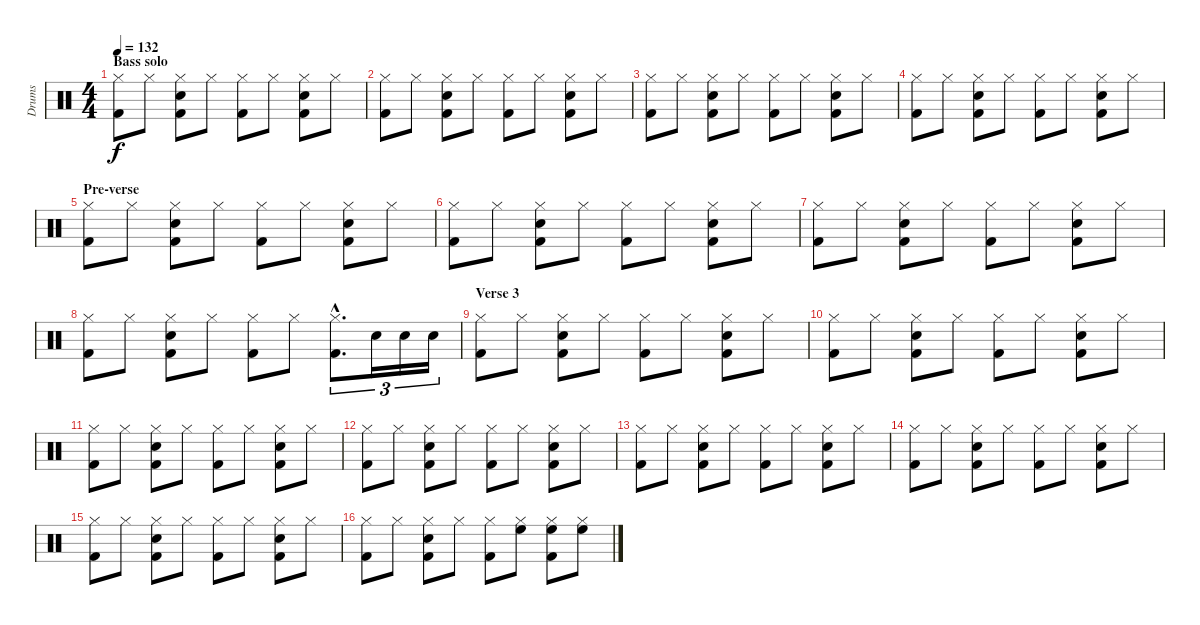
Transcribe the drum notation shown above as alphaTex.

\track ("Drums" "Drums") {instrument percussion}
\staff {score}
\articulation defaults
\ts (4 4)
\section ("" "Bass solo")
\tempo 132
\clef neutral
\ks c
("Hi-Hat (closed)" "Kick (hit) 2").8{dy f} "Hi-Hat (closed)".8 ("Hi-Hat (closed)" "Snare (hit) 2" "Kick (hit) 2").8 "Hi-Hat (closed)".8 ("Hi-Hat (closed)" "Kick (hit) 2").8 "Hi-Hat (closed)".8 ("Hi-Hat (closed)" "Snare (hit) 2" "Kick (hit) 2").8 "Hi-Hat (closed)".8 |
("Hi-Hat (closed)" "Kick (hit) 2").8 "Hi-Hat (closed)".8 ("Hi-Hat (closed)" "Snare (hit) 2" "Kick (hit) 2").8 "Hi-Hat (closed)".8 ("Hi-Hat (closed)" "Kick (hit) 2").8 "Hi-Hat (closed)".8 ("Hi-Hat (closed)" "Snare (hit) 2" "Kick (hit) 2").8 "Hi-Hat (closed)".8 |
("Hi-Hat (closed)" "Kick (hit) 2").8 "Hi-Hat (closed)".8 ("Hi-Hat (closed)" "Snare (hit) 2" "Kick (hit) 2").8 "Hi-Hat (closed)".8 ("Hi-Hat (closed)" "Kick (hit) 2").8 "Hi-Hat (closed)".8 ("Hi-Hat (closed)" "Snare (hit) 2" "Kick (hit) 2").8 "Hi-Hat (closed)".8 |
("Hi-Hat (closed)" "Kick (hit) 2").8 "Hi-Hat (closed)".8 ("Hi-Hat (closed)" "Snare (hit) 2" "Kick (hit) 2").8 "Hi-Hat (closed)".8 ("Hi-Hat (closed)" "Kick (hit) 2").8 "Hi-Hat (closed)".8 ("Hi-Hat (closed)" "Snare (hit) 2" "Kick (hit) 2").8 "Hi-Hat (closed)".8 |
\section ("" "Pre-verse")
("Hi-Hat (closed)" "Kick (hit) 2").8 "Hi-Hat (closed)".8 ("Hi-Hat (closed)" "Snare (hit) 2" "Kick (hit) 2").8 "Hi-Hat (closed)".8 ("Hi-Hat (closed)" "Kick (hit) 2").8 "Hi-Hat (closed)".8 ("Hi-Hat (closed)" "Snare (hit) 2" "Kick (hit) 2").8 "Hi-Hat (closed)".8 |
("Hi-Hat (closed)" "Kick (hit) 2").8 "Hi-Hat (closed)".8 ("Hi-Hat (closed)" "Snare (hit) 2" "Kick (hit) 2").8 "Hi-Hat (closed)".8 ("Hi-Hat (closed)" "Kick (hit) 2").8 "Hi-Hat (closed)".8 ("Hi-Hat (closed)" "Snare (hit) 2" "Kick (hit) 2").8 "Hi-Hat (closed)".8 |
("Hi-Hat (closed)" "Kick (hit) 2").8 "Hi-Hat (closed)".8 ("Hi-Hat (closed)" "Snare (hit) 2" "Kick (hit) 2").8 "Hi-Hat (closed)".8 ("Hi-Hat (closed)" "Kick (hit) 2").8 "Hi-Hat (closed)".8 ("Hi-Hat (closed)" "Snare (hit) 2" "Kick (hit) 2").8 "Hi-Hat (closed)".8 |
("Hi-Hat (closed)" "Kick (hit) 2").8 "Hi-Hat (closed)".8 ("Hi-Hat (closed)" "Snare (hit) 2" "Kick (hit) 2").8 "Hi-Hat (closed)".8 ("Hi-Hat (closed)" "Kick (hit) 2").8 "Hi-Hat (closed)".8 ("Hi-Hat (closed)"{hac} "Kick (hit) 2"{hac}).8{d tu (3 2)} "Snare (hit) 2".16{tu (3 2)} "Snare (hit) 2".16{tu (3 2)} "Snare (hit) 2".16{tu (3 2)} |
\section ("" "Verse 3")
("Hi-Hat (closed)" "Kick (hit) 2").8 "Hi-Hat (closed)".8 ("Hi-Hat (closed)" "Snare (hit) 2" "Kick (hit) 2").8 "Hi-Hat (closed)".8 ("Hi-Hat (closed)" "Kick (hit) 2").8 "Hi-Hat (closed)".8 ("Hi-Hat (closed)" "Snare (hit) 2" "Kick (hit) 2").8 "Hi-Hat (closed)".8 |
("Hi-Hat (closed)" "Kick (hit) 2").8 "Hi-Hat (closed)".8 ("Hi-Hat (closed)" "Snare (hit) 2" "Kick (hit) 2").8 "Hi-Hat (closed)".8 ("Hi-Hat (closed)" "Kick (hit) 2").8 "Hi-Hat (closed)".8 ("Hi-Hat (closed)" "Snare (hit) 2" "Kick (hit) 2").8 "Hi-Hat (closed)".8 |
("Hi-Hat (closed)" "Kick (hit) 2").8 "Hi-Hat (closed)".8 ("Hi-Hat (closed)" "Snare (hit) 2" "Kick (hit) 2").8 "Hi-Hat (closed)".8 ("Hi-Hat (closed)" "Kick (hit) 2").8 "Hi-Hat (closed)".8 ("Hi-Hat (closed)" "Snare (hit) 2" "Kick (hit) 2").8 "Hi-Hat (closed)".8 |
("Hi-Hat (closed)" "Kick (hit) 2").8 "Hi-Hat (closed)".8 ("Hi-Hat (closed)" "Snare (hit) 2" "Kick (hit) 2").8 "Hi-Hat (closed)".8 ("Hi-Hat (closed)" "Kick (hit) 2").8 "Hi-Hat (closed)".8 ("Hi-Hat (closed)" "Snare (hit) 2" "Kick (hit) 2").8 "Hi-Hat (closed)".8 |
("Hi-Hat (closed)" "Kick (hit) 2").8 "Hi-Hat (closed)".8 ("Hi-Hat (closed)" "Snare (hit) 2" "Kick (hit) 2").8 "Hi-Hat (closed)".8 ("Hi-Hat (closed)" "Kick (hit) 2").8 "Hi-Hat (closed)".8 ("Hi-Hat (closed)" "Snare (hit) 2" "Kick (hit) 2").8 "Hi-Hat (closed)".8 |
("Hi-Hat (closed)" "Kick (hit) 2").8 "Hi-Hat (closed)".8 ("Hi-Hat (closed)" "Snare (hit) 2" "Kick (hit) 2").8 "Hi-Hat (closed)".8 ("Hi-Hat (closed)" "Kick (hit) 2").8 "Hi-Hat (closed)".8 ("Hi-Hat (closed)" "Snare (hit) 2" "Kick (hit) 2").8 "Hi-Hat (closed)".8 |
("Hi-Hat (closed)" "Kick (hit) 2").8 "Hi-Hat (closed)".8 ("Hi-Hat (closed)" "Snare (hit) 2" "Kick (hit) 2").8 "Hi-Hat (closed)".8 ("Hi-Hat (closed)" "Kick (hit) 2").8 "Hi-Hat (closed)".8 ("Hi-Hat (closed)" "Snare (hit) 2" "Kick (hit) 2").8 "Hi-Hat (closed)".8 |
("Hi-Hat (closed)" "Kick (hit) 2").8 "Hi-Hat (closed)".8 ("Hi-Hat (closed)" "Snare (hit) 2" "Kick (hit) 2").8 "Hi-Hat (closed)".8 ("Hi-Hat (closed)" "Kick (hit) 2").8 ("Hi-Hat (closed)" "High Floor Tom (hit)").8 ("Hi-Hat (closed)" "High Floor Tom (hit)" "Kick (hit) 2").8 ("Hi-Hat (closed)" "High Floor Tom (hit)").8
